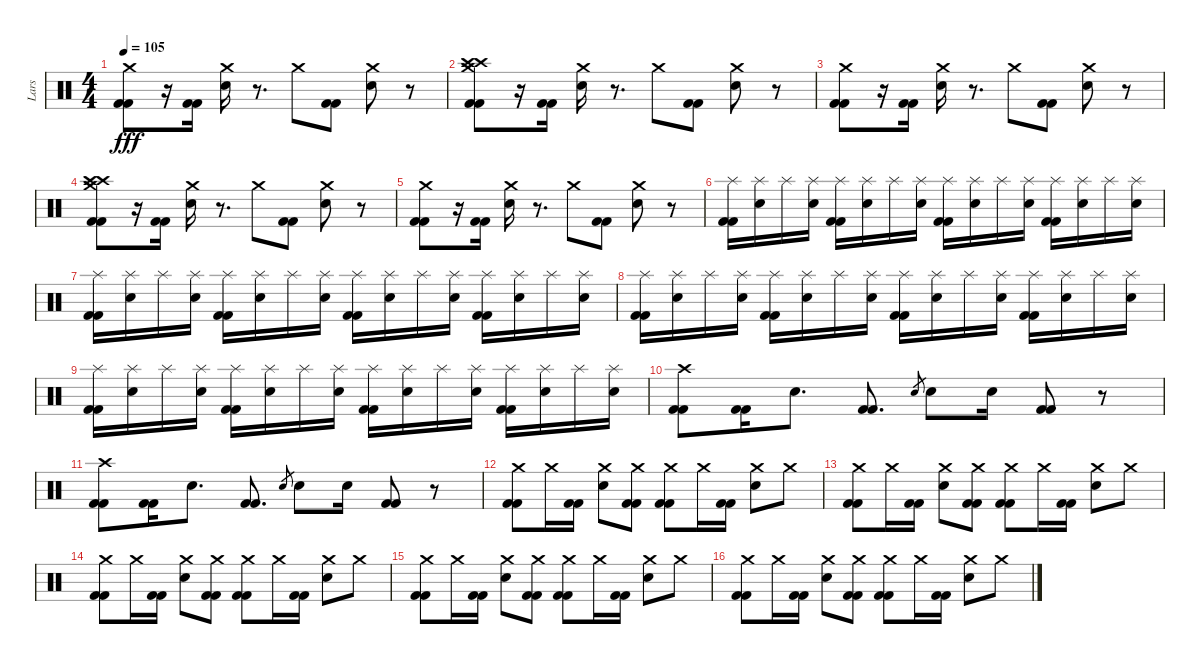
\track ("Lars" "Lars") {instrument percussion}
\staff {score}
\articulation defaults
\ts (4 4)
\tempo 105
\clef neutral
\ks c
("Crash medium (hit)" "Kick (hit) 2" "Kick (hit) 2").8{dy fff} r.16 ("Kick (hit) 2" "Kick (hit) 2").16 ("Crash medium (hit)" "Electric Snare (hit)").16 r.8{d} "Crash medium (hit)".8 ("Kick (hit) 2" "Kick (hit) 2").8 ("Crash medium (hit)" "Electric Snare (hit)").8 r.8 |
("Crash high (hit)" "Crash high (hit)" "Crash medium (hit)" "Kick (hit) 2" "Kick (hit) 2").8 r.16 ("Kick (hit) 2" "Kick (hit) 2").16 ("Crash medium (hit)" "Electric Snare (hit)").16 r.8{d} "Crash medium (hit)".8 ("Kick (hit) 2" "Kick (hit) 2").8 ("Crash medium (hit)" "Electric Snare (hit)").8 r.8 |
("Crash medium (hit)" "Kick (hit) 2" "Kick (hit) 2").8 r.16 ("Kick (hit) 2" "Kick (hit) 2").16 ("Crash medium (hit)" "Electric Snare (hit)").16 r.8{d} "Crash medium (hit)".8 ("Kick (hit) 2" "Kick (hit) 2").8 ("Crash medium (hit)" "Electric Snare (hit)").8 r.8 |
("Crash high (hit)" "Crash high (hit)" "Crash medium (hit)" "Kick (hit) 2" "Kick (hit) 2").8 r.16 ("Kick (hit) 2" "Kick (hit) 2").16 ("Crash medium (hit)" "Electric Snare (hit)").16 r.8{d} "Crash medium (hit)".8 ("Kick (hit) 2" "Kick (hit) 2").8 ("Crash medium (hit)" "Electric Snare (hit)").8 r.8 |
("Crash medium (hit)" "Kick (hit) 2" "Kick (hit) 2").8 r.16 ("Kick (hit) 2" "Kick (hit) 2").16 ("Crash medium (hit)" "Electric Snare (hit)").16 r.8{d} "Crash medium (hit)".8 ("Kick (hit) 2" "Kick (hit) 2").8 ("Crash medium (hit)" "Electric Snare (hit)").8 r.8 |
("Splash (hit)" "Kick (hit) 2" "Kick (hit) 2").16 ("Splash (hit)" "Electric Snare (hit)").16 "Splash (hit)".16 ("Splash (hit)" "Electric Snare (hit)").16 ("Splash (hit)" "Kick (hit) 2" "Kick (hit) 2").16 ("Splash (hit)" "Electric Snare (hit)").16 "Splash (hit)".16 ("Splash (hit)" "Electric Snare (hit)").16 ("Splash (hit)" "Kick (hit) 2" "Kick (hit) 2").16 ("Splash (hit)" "Electric Snare (hit)").16 "Splash (hit)".16 ("Splash (hit)" "Electric Snare (hit)").16 ("Splash (hit)" "Kick (hit) 2" "Kick (hit) 2").16 ("Splash (hit)" "Electric Snare (hit)").16 "Splash (hit)".16 ("Splash (hit)" "Electric Snare (hit)").16 |
("Splash (hit)" "Kick (hit) 2" "Kick (hit) 2").16 ("Splash (hit)" "Electric Snare (hit)").16 "Splash (hit)".16 ("Splash (hit)" "Electric Snare (hit)").16 ("Splash (hit)" "Kick (hit) 2" "Kick (hit) 2").16 ("Splash (hit)" "Electric Snare (hit)").16 "Splash (hit)".16 ("Splash (hit)" "Electric Snare (hit)").16 ("Splash (hit)" "Kick (hit) 2" "Kick (hit) 2").16 ("Splash (hit)" "Electric Snare (hit)").16 "Splash (hit)".16 ("Splash (hit)" "Electric Snare (hit)").16 ("Splash (hit)" "Kick (hit) 2" "Kick (hit) 2").16 ("Splash (hit)" "Electric Snare (hit)").16 "Splash (hit)".16 ("Splash (hit)" "Electric Snare (hit)").16 |
("Splash (hit)" "Kick (hit) 2" "Kick (hit) 2").16 ("Splash (hit)" "Electric Snare (hit)").16 "Splash (hit)".16 ("Splash (hit)" "Electric Snare (hit)").16 ("Splash (hit)" "Kick (hit) 2" "Kick (hit) 2").16 ("Splash (hit)" "Electric Snare (hit)").16 "Splash (hit)".16 ("Splash (hit)" "Electric Snare (hit)").16 ("Splash (hit)" "Kick (hit) 2" "Kick (hit) 2").16 ("Splash (hit)" "Electric Snare (hit)").16 "Splash (hit)".16 ("Splash (hit)" "Electric Snare (hit)").16 ("Splash (hit)" "Kick (hit) 2" "Kick (hit) 2").16 ("Splash (hit)" "Electric Snare (hit)").16 "Splash (hit)".16 ("Splash (hit)" "Electric Snare (hit)").16 |
("Splash (hit)" "Kick (hit) 2" "Kick (hit) 2").16 ("Splash (hit)" "Electric Snare (hit)").16 "Splash (hit)".16 ("Splash (hit)" "Electric Snare (hit)").16 ("Splash (hit)" "Kick (hit) 2" "Kick (hit) 2").16 ("Splash (hit)" "Electric Snare (hit)").16 "Splash (hit)".16 ("Splash (hit)" "Electric Snare (hit)").16 ("Splash (hit)" "Kick (hit) 2" "Kick (hit) 2").16 ("Splash (hit)" "Electric Snare (hit)").16 "Splash (hit)".16 ("Splash (hit)" "Electric Snare (hit)").16 ("Splash (hit)" "Kick (hit) 2" "Kick (hit) 2").16 ("Splash (hit)" "Electric Snare (hit)").16 "Splash (hit)".16 ("Splash (hit)" "Electric Snare (hit)").16 |
("Crash high (hit)" "Kick (hit) 2" "Kick (hit) 2").8 ("Kick (hit) 2" "Kick (hit) 2").16 "Electric Snare (hit)".8{d} ("Kick (hit) 2" "Kick (hit) 2").8{d} "Electric Snare (hit)".8{gr} "Electric Snare (hit)".8 "Electric Snare (hit)".16 ("Kick (hit) 2" "Kick (hit) 2").8 r.8 |
("Crash high (hit)" "Kick (hit) 2" "Kick (hit) 2").8 ("Kick (hit) 2" "Kick (hit) 2").16 "Electric Snare (hit)".8{d} ("Kick (hit) 2" "Kick (hit) 2").8{d} "Electric Snare (hit)".8{gr} "Electric Snare (hit)".8 "Electric Snare (hit)".16 ("Kick (hit) 2" "Kick (hit) 2").8 r.8 |
("Crash medium (hit)" "Kick (hit) 2" "Kick (hit) 2").8 "Crash medium (hit)".16 ("Kick (hit) 2" "Kick (hit) 2").16 ("Crash medium (hit)" "Electric Snare (hit)").8 ("Crash medium (hit)" "Kick (hit) 2" "Kick (hit) 2").8 ("Crash medium (hit)" "Kick (hit) 2" "Kick (hit) 2").8 "Crash medium (hit)".16 ("Kick (hit) 2" "Kick (hit) 2").16 ("Crash medium (hit)" "Electric Snare (hit)").8 "Crash medium (hit)".8 |
("Crash medium (hit)" "Kick (hit) 2" "Kick (hit) 2").8 "Crash medium (hit)".16 ("Kick (hit) 2" "Kick (hit) 2").16 ("Crash medium (hit)" "Electric Snare (hit)").8 ("Crash medium (hit)" "Kick (hit) 2" "Kick (hit) 2").8 ("Crash medium (hit)" "Kick (hit) 2" "Kick (hit) 2").8 "Crash medium (hit)".16 ("Kick (hit) 2" "Kick (hit) 2").16 ("Crash medium (hit)" "Electric Snare (hit)").8 "Crash medium (hit)".8 |
("Crash medium (hit)" "Kick (hit) 2" "Kick (hit) 2").8 "Crash medium (hit)".16 ("Kick (hit) 2" "Kick (hit) 2").16 ("Crash medium (hit)" "Electric Snare (hit)").8 ("Crash medium (hit)" "Kick (hit) 2" "Kick (hit) 2").8 ("Crash medium (hit)" "Kick (hit) 2" "Kick (hit) 2").8 "Crash medium (hit)".16 ("Kick (hit) 2" "Kick (hit) 2").16 ("Crash medium (hit)" "Electric Snare (hit)").8 "Crash medium (hit)".8 |
("Crash medium (hit)" "Kick (hit) 2" "Kick (hit) 2").8 "Crash medium (hit)".16 ("Kick (hit) 2" "Kick (hit) 2").16 ("Crash medium (hit)" "Electric Snare (hit)").8 ("Crash medium (hit)" "Kick (hit) 2" "Kick (hit) 2").8 ("Crash medium (hit)" "Kick (hit) 2" "Kick (hit) 2").8 "Crash medium (hit)".16 ("Kick (hit) 2" "Kick (hit) 2").16 ("Crash medium (hit)" "Electric Snare (hit)").8 "Crash medium (hit)".8 |
("Crash medium (hit)" "Kick (hit) 2" "Kick (hit) 2").8 "Crash medium (hit)".16 ("Kick (hit) 2" "Kick (hit) 2").16 ("Crash medium (hit)" "Electric Snare (hit)").8 ("Crash medium (hit)" "Kick (hit) 2" "Kick (hit) 2").8 ("Crash medium (hit)" "Kick (hit) 2" "Kick (hit) 2").8 "Crash medium (hit)".16 ("Kick (hit) 2" "Kick (hit) 2").16 ("Crash medium (hit)" "Electric Snare (hit)").8 "Crash medium (hit)".8
